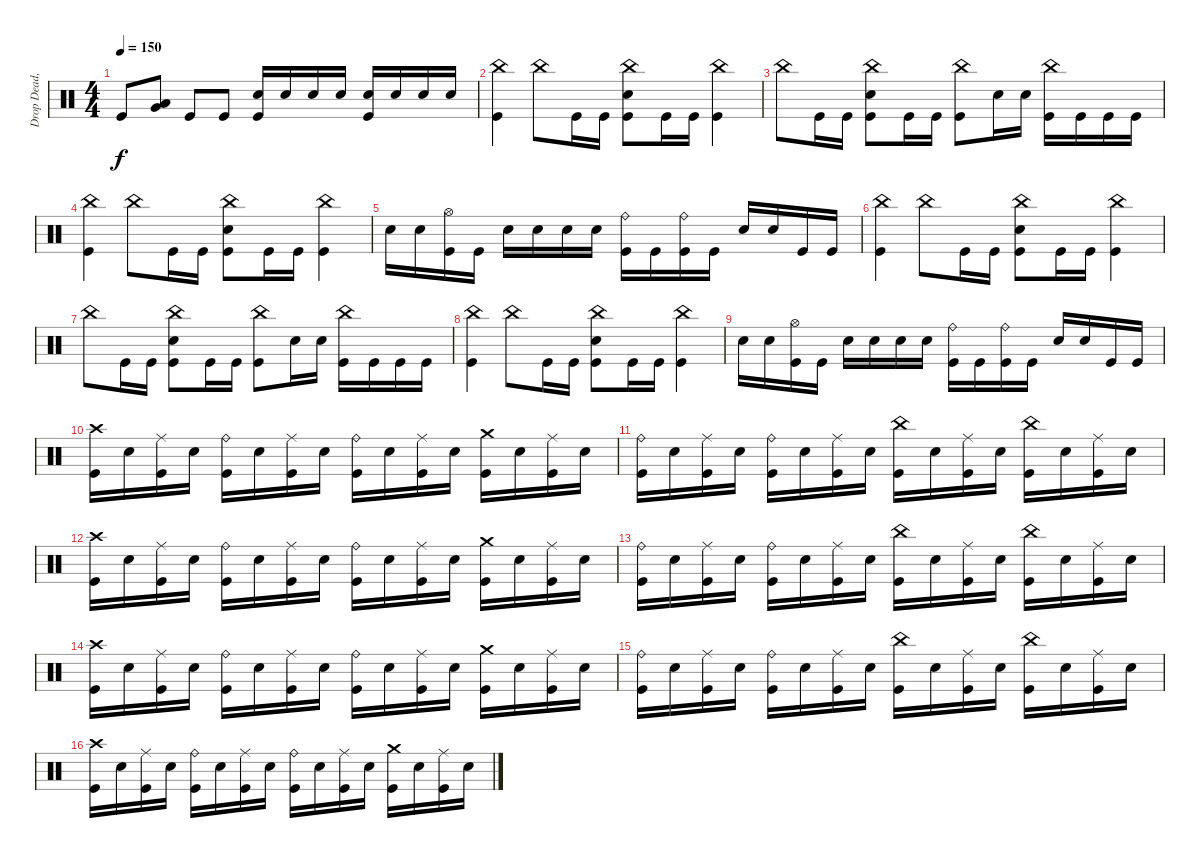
\track ("Drop Dead, Johnny" "Drop Dead,") {instrument percussion}
\staff {score}
\articulation defaults
\ts (4 4)
\tempo 150
\clef neutral
\ks c "Kick (hit)".8{dy f}
("Very Low Tom (hit)" "Low Floor Tom (hit)").8 "Kick (hit)".8 "Kick (hit)".8 ("Electric Snare (hit)" "Kick (hit)").16 "Electric Snare (hit)".16 "Electric Snare (hit)".16 "Electric Snare (hit)".16 ("Electric Snare (hit)" "Kick (hit)").16 "Electric Snare (hit)".16 "Electric Snare (hit)".16 "Electric Snare (hit)".16 |
("China (hit)" "Kick (hit)").4 "China (hit)".8 "Kick (hit)".16 "Kick (hit)".16 ("China (hit)" "Electric Snare (hit)" "Kick (hit)").8 "Kick (hit)".16 "Kick (hit)".16 ("China (hit)" "Kick (hit)").4 |
"China (hit)".8 "Kick (hit)".16 "Kick (hit)".16 ("China (hit)" "Electric Snare (hit)" "Kick (hit)").8 "Kick (hit)".16 "Kick (hit)".16 ("China (hit)" "Kick (hit)").8 "Electric Snare (hit)".16 "Electric Snare (hit)".16 ("China (hit)" "Kick (hit)").16 "Kick (hit)".16 "Kick (hit)".16 "Kick (hit)".16 |
("China (hit)" "Kick (hit)").4 "China (hit)".8 "Kick (hit)".16 "Kick (hit)".16 ("China (hit)" "Electric Snare (hit)" "Kick (hit)").8 "Kick (hit)".16 "Kick (hit)".16 ("China (hit)" "Kick (hit)").4 |
"Electric Snare (hit)".16 "Electric Snare (hit)".16 ("Hi-Hat (open)" "Kick (hit)").16 "Kick (hit)".16 "Electric Snare (hit)".16 "Electric Snare (hit)".16 "Electric Snare (hit)".16 "Electric Snare (hit)".16 ("Ride (bell)" "Kick (hit)").16 "Kick (hit)".16 ("Ride (bell)" "Kick (hit)").16 "Kick (hit)".16 "Electric Snare (hit)".16 "Electric Snare (hit)".16 "Kick (hit)".16 "Kick (hit)".16 |
("China (hit)" "Kick (hit)").4 "China (hit)".8 "Kick (hit)".16 "Kick (hit)".16 ("China (hit)" "Electric Snare (hit)" "Kick (hit)").8 "Kick (hit)".16 "Kick (hit)".16 ("China (hit)" "Kick (hit)").4 |
"China (hit)".8 "Kick (hit)".16 "Kick (hit)".16 ("China (hit)" "Electric Snare (hit)" "Kick (hit)").8 "Kick (hit)".16 "Kick (hit)".16 ("China (hit)" "Kick (hit)").8 "Electric Snare (hit)".16 "Electric Snare (hit)".16 ("China (hit)" "Kick (hit)").16 "Kick (hit)".16 "Kick (hit)".16 "Kick (hit)".16 |
("China (hit)" "Kick (hit)").4 "China (hit)".8 "Kick (hit)".16 "Kick (hit)".16 ("China (hit)" "Electric Snare (hit)" "Kick (hit)").8 "Kick (hit)".16 "Kick (hit)".16 ("China (hit)" "Kick (hit)").4 |
"Electric Snare (hit)".16 "Electric Snare (hit)".16 ("Hi-Hat (open)" "Kick (hit)").16 "Kick (hit)".16 "Electric Snare (hit)".16 "Electric Snare (hit)".16 "Electric Snare (hit)".16 "Electric Snare (hit)".16 ("Ride (bell)" "Kick (hit)").16 "Kick (hit)".16 ("Ride (bell)" "Kick (hit)").16 "Kick (hit)".16 "Electric Snare (hit)".16 "Electric Snare (hit)".16 "Kick (hit)".16 "Kick (hit)".16 |
("Crash high (hit)" "Kick (hit)").16 "Electric Snare (hit)".16 ("Ride (middle)" "Kick (hit)").16 "Electric Snare (hit)".16 ("Ride (bell)" "Kick (hit)").16 "Electric Snare (hit)".16 ("Ride (middle)" "Kick (hit)").16 "Electric Snare (hit)".16 ("Ride (bell)" "Kick (hit)").16 "Electric Snare (hit)".16 ("Ride (middle)" "Kick (hit)").16 "Electric Snare (hit)".16 ("Crash medium (hit)" "Kick (hit)").16 "Electric Snare (hit)".16 ("Ride (middle)" "Kick (hit)").16 "Electric Snare (hit)".16 |
("Ride (bell)" "Kick (hit)").16 "Electric Snare (hit)".16 ("Ride (middle)" "Kick (hit)").16 "Electric Snare (hit)".16 ("Ride (bell)" "Kick (hit)").16 "Electric Snare (hit)".16 ("Ride (middle)" "Kick (hit)").16 "Electric Snare (hit)".16 ("China (hit)" "Kick (hit)").16 "Electric Snare (hit)".16 ("Ride (middle)" "Kick (hit)").16 "Electric Snare (hit)".16 ("China (hit)" "Kick (hit)").16 "Electric Snare (hit)".16 ("Ride (middle)" "Kick (hit)").16 "Electric Snare (hit)".16 |
("Crash high (hit)" "Kick (hit)").16 "Electric Snare (hit)".16 ("Ride (middle)" "Kick (hit)").16 "Electric Snare (hit)".16 ("Ride (bell)" "Kick (hit)").16 "Electric Snare (hit)".16 ("Ride (middle)" "Kick (hit)").16 "Electric Snare (hit)".16 ("Ride (bell)" "Kick (hit)").16 "Electric Snare (hit)".16 ("Ride (middle)" "Kick (hit)").16 "Electric Snare (hit)".16 ("Crash medium (hit)" "Kick (hit)").16 "Electric Snare (hit)".16 ("Ride (middle)" "Kick (hit)").16 "Electric Snare (hit)".16 |
("Ride (bell)" "Kick (hit)").16 "Electric Snare (hit)".16 ("Ride (middle)" "Kick (hit)").16 "Electric Snare (hit)".16 ("Ride (bell)" "Kick (hit)").16 "Electric Snare (hit)".16 ("Ride (middle)" "Kick (hit)").16 "Electric Snare (hit)".16 ("China (hit)" "Kick (hit)").16 "Electric Snare (hit)".16 ("Ride (middle)" "Kick (hit)").16 "Electric Snare (hit)".16 ("China (hit)" "Kick (hit)").16 "Electric Snare (hit)".16 ("Ride (middle)" "Kick (hit)").16 "Electric Snare (hit)".16 |
("Crash high (hit)" "Kick (hit)").16 "Electric Snare (hit)".16 ("Ride (middle)" "Kick (hit)").16 "Electric Snare (hit)".16 ("Ride (bell)" "Kick (hit)").16 "Electric Snare (hit)".16 ("Ride (middle)" "Kick (hit)").16 "Electric Snare (hit)".16 ("Ride (bell)" "Kick (hit)").16 "Electric Snare (hit)".16 ("Ride (middle)" "Kick (hit)").16 "Electric Snare (hit)".16 ("Crash medium (hit)" "Kick (hit)").16 "Electric Snare (hit)".16 ("Ride (middle)" "Kick (hit)").16 "Electric Snare (hit)".16 |
("Ride (bell)" "Kick (hit)").16 "Electric Snare (hit)".16 ("Ride (middle)" "Kick (hit)").16 "Electric Snare (hit)".16 ("Ride (bell)" "Kick (hit)").16 "Electric Snare (hit)".16 ("Ride (middle)" "Kick (hit)").16 "Electric Snare (hit)".16 ("China (hit)" "Kick (hit)").16 "Electric Snare (hit)".16 ("Ride (middle)" "Kick (hit)").16 "Electric Snare (hit)".16 ("China (hit)" "Kick (hit)").16 "Electric Snare (hit)".16 ("Ride (middle)" "Kick (hit)").16 "Electric Snare (hit)".16 |
("Crash high (hit)" "Kick (hit)").16 "Electric Snare (hit)".16 ("Ride (middle)" "Kick (hit)").16 "Electric Snare (hit)".16 ("Ride (bell)" "Kick (hit)").16 "Electric Snare (hit)".16 ("Ride (middle)" "Kick (hit)").16 "Electric Snare (hit)".16 ("Ride (bell)" "Kick (hit)").16 "Electric Snare (hit)".16 ("Ride (middle)" "Kick (hit)").16 "Electric Snare (hit)".16 ("Crash medium (hit)" "Kick (hit)").16 "Electric Snare (hit)".16 ("Ride (middle)" "Kick (hit)").16 "Electric Snare (hit)".16
